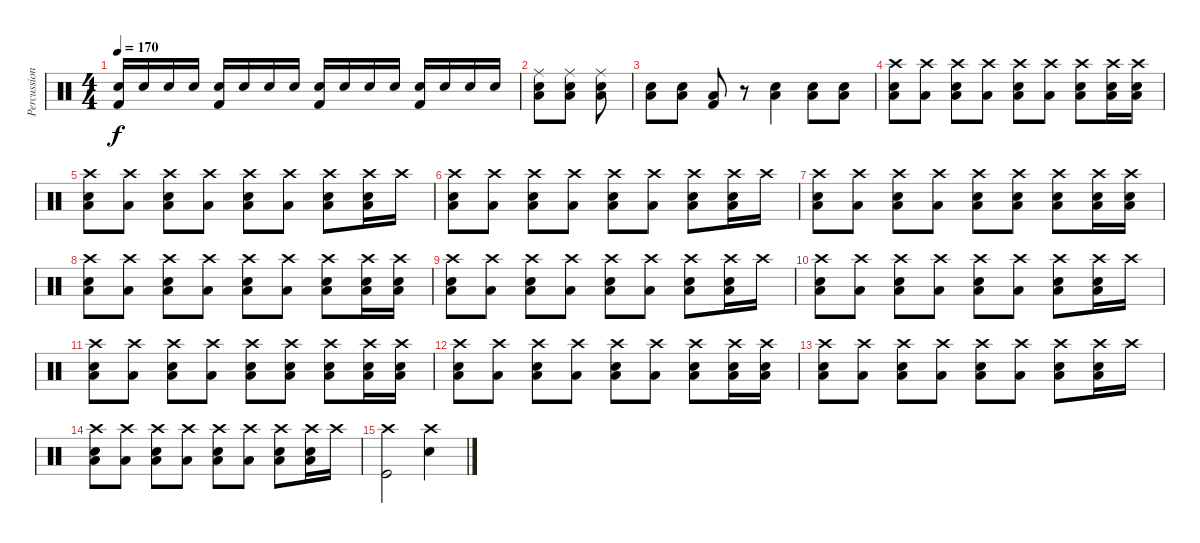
\track ("Percussion" "Percussion") {instrument percussion}
\staff {score}
\articulation defaults
\ts (4 4)
\tempo 170
\clef neutral
\ks c
("Electric Snare (hit)" "Kick (hit) 2").16{dy f} "Electric Snare (hit)".16 "Electric Snare (hit)".16 "Electric Snare (hit)".16 ("Electric Snare (hit)" "Kick (hit) 2").16 "Electric Snare (hit)".16 "Electric Snare (hit)".16 "Electric Snare (hit)".16 ("Electric Snare (hit)" "Kick (hit) 2").16 "Electric Snare (hit)".16 "Electric Snare (hit)".16 "Electric Snare (hit)".16 ("Electric Snare (hit)" "Kick (hit) 2").16 "Electric Snare (hit)".16 "Electric Snare (hit)".16 "Electric Snare (hit)".16 |
("Ride (middle)" "Low Floor Tom (hit)" "Electric Snare (hit)").8 ("Ride (middle)" "Low Floor Tom (hit)" "Electric Snare (hit)").8 ("Ride (middle)" "Low Floor Tom (hit)" "Electric Snare (hit)").8 |
("Low Floor Tom (hit)" "Electric Snare (hit)").8 ("Low Floor Tom (hit)" "Electric Snare (hit)").8 ("Low Floor Tom (hit)" "Kick (hit) 2").8 r.8 ("Low Floor Tom (hit)" "Electric Snare (hit)").4 ("Low Floor Tom (hit)" "Electric Snare (hit)").8 ("Low Floor Tom (hit)" "Electric Snare (hit)").8 |
("Crash high (hit)" "Low Floor Tom (hit)" "Electric Snare (hit)").8 ("Crash high (hit)" "Low Floor Tom (hit)").8 ("Crash high (hit)" "Low Floor Tom (hit)" "Electric Snare (hit)").8 ("Crash high (hit)" "Low Floor Tom (hit)").8 ("Crash high (hit)" "Low Floor Tom (hit)" "Electric Snare (hit)").8 ("Crash high (hit)" "Low Floor Tom (hit)").8 ("Crash high (hit)" "Low Floor Tom (hit)" "Electric Snare (hit)").8 ("Crash high (hit)" "Low Floor Tom (hit)" "Electric Snare (hit)").16 ("Crash high (hit)" "Low Floor Tom (hit)" "Electric Snare (hit)").16 |
("Crash high (hit)" "Low Floor Tom (hit)" "Electric Snare (hit)").8 ("Crash high (hit)" "Low Floor Tom (hit)").8 ("Crash high (hit)" "Low Floor Tom (hit)" "Electric Snare (hit)").8 ("Crash high (hit)" "Low Floor Tom (hit)").8 ("Crash high (hit)" "Low Floor Tom (hit)" "Electric Snare (hit)").8 ("Crash high (hit)" "Low Floor Tom (hit)").8 ("Crash high (hit)" "Low Floor Tom (hit)" "Electric Snare (hit)").8 ("Crash high (hit)" "Low Floor Tom (hit)" "Electric Snare (hit)").16 "Crash high (hit)".16 |
("Crash high (hit)" "Low Floor Tom (hit)" "Electric Snare (hit)").8 ("Crash high (hit)" "Low Floor Tom (hit)").8 ("Crash high (hit)" "Low Floor Tom (hit)" "Electric Snare (hit)").8 ("Crash high (hit)" "Low Floor Tom (hit)").8 ("Crash high (hit)" "Low Floor Tom (hit)" "Electric Snare (hit)").8 ("Crash high (hit)" "Low Floor Tom (hit)").8 ("Crash high (hit)" "Low Floor Tom (hit)" "Electric Snare (hit)").8 ("Crash high (hit)" "Low Floor Tom (hit)" "Electric Snare (hit)").16 "Crash high (hit)".16 |
("Crash high (hit)" "Low Floor Tom (hit)" "Electric Snare (hit)").8 ("Crash high (hit)" "Low Floor Tom (hit)").8 ("Crash high (hit)" "Low Floor Tom (hit)" "Electric Snare (hit)").8 ("Crash high (hit)" "Low Floor Tom (hit)").8 ("Crash high (hit)" "Low Floor Tom (hit)" "Electric Snare (hit)").8 ("Crash high (hit)" "Low Floor Tom (hit)" "Electric Snare (hit)").8 ("Crash high (hit)" "Low Floor Tom (hit)" "Electric Snare (hit)").8 ("Crash high (hit)" "Low Floor Tom (hit)" "Electric Snare (hit)").16 ("Crash high (hit)" "Low Floor Tom (hit)" "Electric Snare (hit)").16 |
("Crash high (hit)" "Low Floor Tom (hit)" "Electric Snare (hit)").8 ("Crash high (hit)" "Low Floor Tom (hit)").8 ("Crash high (hit)" "Low Floor Tom (hit)" "Electric Snare (hit)").8 ("Crash high (hit)" "Low Floor Tom (hit)").8 ("Crash high (hit)" "Low Floor Tom (hit)" "Electric Snare (hit)").8 ("Crash high (hit)" "Low Floor Tom (hit)").8 ("Crash high (hit)" "Low Floor Tom (hit)" "Electric Snare (hit)").8 ("Crash high (hit)" "Low Floor Tom (hit)" "Electric Snare (hit)").16 ("Crash high (hit)" "Low Floor Tom (hit)" "Electric Snare (hit)").16 |
("Crash high (hit)" "Low Floor Tom (hit)" "Electric Snare (hit)").8 ("Crash high (hit)" "Low Floor Tom (hit)").8 ("Crash high (hit)" "Low Floor Tom (hit)" "Electric Snare (hit)").8 ("Crash high (hit)" "Low Floor Tom (hit)").8 ("Crash high (hit)" "Low Floor Tom (hit)" "Electric Snare (hit)").8 ("Crash high (hit)" "Low Floor Tom (hit)").8 ("Crash high (hit)" "Low Floor Tom (hit)" "Electric Snare (hit)").8 ("Crash high (hit)" "Low Floor Tom (hit)" "Electric Snare (hit)").16 "Crash high (hit)".16 |
("Crash high (hit)" "Low Floor Tom (hit)" "Electric Snare (hit)").8 ("Crash high (hit)" "Low Floor Tom (hit)").8 ("Crash high (hit)" "Low Floor Tom (hit)" "Electric Snare (hit)").8 ("Crash high (hit)" "Low Floor Tom (hit)").8 ("Crash high (hit)" "Low Floor Tom (hit)" "Electric Snare (hit)").8 ("Crash high (hit)" "Low Floor Tom (hit)").8 ("Crash high (hit)" "Low Floor Tom (hit)" "Electric Snare (hit)").8 ("Crash high (hit)" "Low Floor Tom (hit)" "Electric Snare (hit)").16 "Crash high (hit)".16 |
("Crash high (hit)" "Low Floor Tom (hit)" "Electric Snare (hit)").8 ("Crash high (hit)" "Low Floor Tom (hit)").8 ("Crash high (hit)" "Low Floor Tom (hit)" "Electric Snare (hit)").8 ("Crash high (hit)" "Low Floor Tom (hit)").8 ("Crash high (hit)" "Low Floor Tom (hit)" "Electric Snare (hit)").8 ("Crash high (hit)" "Low Floor Tom (hit)" "Electric Snare (hit)").8 ("Crash high (hit)" "Low Floor Tom (hit)" "Electric Snare (hit)").8 ("Crash high (hit)" "Low Floor Tom (hit)" "Electric Snare (hit)").16 ("Crash high (hit)" "Low Floor Tom (hit)" "Electric Snare (hit)").16 |
("Crash high (hit)" "Low Floor Tom (hit)" "Electric Snare (hit)").8 ("Crash high (hit)" "Low Floor Tom (hit)").8 ("Crash high (hit)" "Low Floor Tom (hit)" "Electric Snare (hit)").8 ("Crash high (hit)" "Low Floor Tom (hit)").8 ("Crash high (hit)" "Low Floor Tom (hit)" "Electric Snare (hit)").8 ("Crash high (hit)" "Low Floor Tom (hit)").8 ("Crash high (hit)" "Low Floor Tom (hit)" "Electric Snare (hit)").8 ("Crash high (hit)" "Low Floor Tom (hit)" "Electric Snare (hit)").16 ("Crash high (hit)" "Low Floor Tom (hit)" "Electric Snare (hit)").16 |
("Crash high (hit)" "Low Floor Tom (hit)" "Electric Snare (hit)").8 ("Crash high (hit)" "Low Floor Tom (hit)").8 ("Crash high (hit)" "Low Floor Tom (hit)" "Electric Snare (hit)").8 ("Crash high (hit)" "Low Floor Tom (hit)").8 ("Crash high (hit)" "Low Floor Tom (hit)" "Electric Snare (hit)").8 ("Crash high (hit)" "Low Floor Tom (hit)").8 ("Crash high (hit)" "Low Floor Tom (hit)" "Electric Snare (hit)").8 ("Crash high (hit)" "Low Floor Tom (hit)" "Electric Snare (hit)").16 "Crash high (hit)".16 |
("Crash high (hit)" "Low Floor Tom (hit)" "Electric Snare (hit)").8 ("Crash high (hit)" "Low Floor Tom (hit)").8 ("Crash high (hit)" "Low Floor Tom (hit)" "Electric Snare (hit)").8 ("Crash high (hit)" "Low Floor Tom (hit)").8 ("Crash high (hit)" "Low Floor Tom (hit)" "Electric Snare (hit)").8 ("Crash high (hit)" "Low Floor Tom (hit)").8 ("Crash high (hit)" "Low Floor Tom (hit)" "Electric Snare (hit)").8 ("Crash high (hit)" "Low Floor Tom (hit)" "Electric Snare (hit)").16 "Crash high (hit)".16 |
("Crash high (hit)" "Kick (hit)").2 ("Crash high (hit)" "Electric Snare (hit)").4
